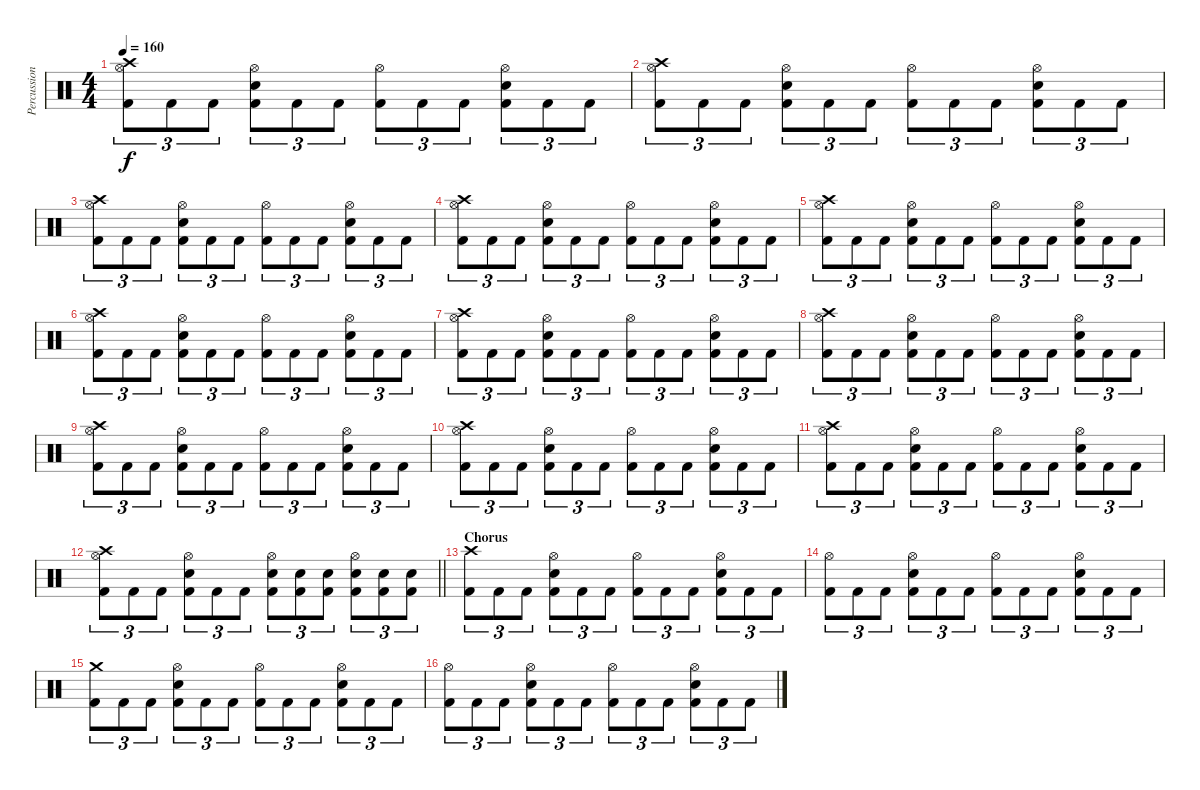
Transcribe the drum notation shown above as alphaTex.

\track ("Percussion" "Percussion") {instrument percussion}
\staff {score}
\articulation defaults
\ts (4 4)
\tempo 160
\clef neutral
\ks c
("Crash high (hit)" "Hi-Hat (open)" "Kick (hit) 2").8{tu (3 2) dy f} "Kick (hit) 2".8{tu (3 2)} "Kick (hit) 2".8{tu (3 2)} ("Hi-Hat (open)" "Snare (hit) 2" "Kick (hit) 2").8{tu (3 2)} "Kick (hit) 2".8{tu (3 2)} "Kick (hit) 2".8{tu (3 2)} ("Hi-Hat (open)" "Kick (hit) 2").8{tu (3 2)} "Kick (hit) 2".8{tu (3 2)} "Kick (hit) 2".8{tu (3 2)} ("Hi-Hat (open)" "Snare (hit) 2" "Kick (hit) 2").8{tu (3 2)} "Kick (hit) 2".8{tu (3 2)} "Kick (hit) 2".8{tu (3 2)} |
("Crash high (hit)" "Hi-Hat (open)" "Kick (hit) 2").8{tu (3 2)} "Kick (hit) 2".8{tu (3 2)} "Kick (hit) 2".8{tu (3 2)} ("Hi-Hat (open)" "Snare (hit) 2" "Kick (hit) 2").8{tu (3 2)} "Kick (hit) 2".8{tu (3 2)} "Kick (hit) 2".8{tu (3 2)} ("Hi-Hat (open)" "Kick (hit) 2").8{tu (3 2)} "Kick (hit) 2".8{tu (3 2)} "Kick (hit) 2".8{tu (3 2)} ("Hi-Hat (open)" "Snare (hit) 2" "Kick (hit) 2").8{tu (3 2)} "Kick (hit) 2".8{tu (3 2)} "Kick (hit) 2".8{tu (3 2)} |
("Crash high (hit)" "Hi-Hat (open)" "Kick (hit) 2").8{tu (3 2)} "Kick (hit) 2".8{tu (3 2)} "Kick (hit) 2".8{tu (3 2)} ("Hi-Hat (open)" "Snare (hit) 2" "Kick (hit) 2").8{tu (3 2)} "Kick (hit) 2".8{tu (3 2)} "Kick (hit) 2".8{tu (3 2)} ("Hi-Hat (open)" "Kick (hit) 2").8{tu (3 2)} "Kick (hit) 2".8{tu (3 2)} "Kick (hit) 2".8{tu (3 2)} ("Hi-Hat (open)" "Snare (hit) 2" "Kick (hit) 2").8{tu (3 2)} "Kick (hit) 2".8{tu (3 2)} "Kick (hit) 2".8{tu (3 2)} |
("Crash high (hit)" "Hi-Hat (open)" "Kick (hit) 2").8{tu (3 2)} "Kick (hit) 2".8{tu (3 2)} "Kick (hit) 2".8{tu (3 2)} ("Hi-Hat (open)" "Snare (hit) 2" "Kick (hit) 2").8{tu (3 2)} "Kick (hit) 2".8{tu (3 2)} "Kick (hit) 2".8{tu (3 2)} ("Hi-Hat (open)" "Kick (hit) 2").8{tu (3 2)} "Kick (hit) 2".8{tu (3 2)} "Kick (hit) 2".8{tu (3 2)} ("Hi-Hat (open)" "Snare (hit) 2" "Kick (hit) 2").8{tu (3 2)} "Kick (hit) 2".8{tu (3 2)} "Kick (hit) 2".8{tu (3 2)} |
("Crash high (hit)" "Hi-Hat (open)" "Kick (hit) 2").8{tu (3 2)} "Kick (hit) 2".8{tu (3 2)} "Kick (hit) 2".8{tu (3 2)} ("Hi-Hat (open)" "Snare (hit) 2" "Kick (hit) 2").8{tu (3 2)} "Kick (hit) 2".8{tu (3 2)} "Kick (hit) 2".8{tu (3 2)} ("Hi-Hat (open)" "Kick (hit) 2").8{tu (3 2)} "Kick (hit) 2".8{tu (3 2)} "Kick (hit) 2".8{tu (3 2)} ("Hi-Hat (open)" "Snare (hit) 2" "Kick (hit) 2").8{tu (3 2)} "Kick (hit) 2".8{tu (3 2)} "Kick (hit) 2".8{tu (3 2)} |
("Crash high (hit)" "Hi-Hat (open)" "Kick (hit) 2").8{tu (3 2)} "Kick (hit) 2".8{tu (3 2)} "Kick (hit) 2".8{tu (3 2)} ("Hi-Hat (open)" "Snare (hit) 2" "Kick (hit) 2").8{tu (3 2)} "Kick (hit) 2".8{tu (3 2)} "Kick (hit) 2".8{tu (3 2)} ("Hi-Hat (open)" "Kick (hit) 2").8{tu (3 2)} "Kick (hit) 2".8{tu (3 2)} "Kick (hit) 2".8{tu (3 2)} ("Hi-Hat (open)" "Snare (hit) 2" "Kick (hit) 2").8{tu (3 2)} "Kick (hit) 2".8{tu (3 2)} "Kick (hit) 2".8{tu (3 2)} |
("Crash high (hit)" "Hi-Hat (open)" "Kick (hit) 2").8{tu (3 2)} "Kick (hit) 2".8{tu (3 2)} "Kick (hit) 2".8{tu (3 2)} ("Hi-Hat (open)" "Snare (hit) 2" "Kick (hit) 2").8{tu (3 2)} "Kick (hit) 2".8{tu (3 2)} "Kick (hit) 2".8{tu (3 2)} ("Hi-Hat (open)" "Kick (hit) 2").8{tu (3 2)} "Kick (hit) 2".8{tu (3 2)} "Kick (hit) 2".8{tu (3 2)} ("Hi-Hat (open)" "Snare (hit) 2" "Kick (hit) 2").8{tu (3 2)} "Kick (hit) 2".8{tu (3 2)} "Kick (hit) 2".8{tu (3 2)} |
("Crash high (hit)" "Hi-Hat (open)" "Kick (hit) 2").8{tu (3 2)} "Kick (hit) 2".8{tu (3 2)} "Kick (hit) 2".8{tu (3 2)} ("Hi-Hat (open)" "Snare (hit) 2" "Kick (hit) 2").8{tu (3 2)} "Kick (hit) 2".8{tu (3 2)} "Kick (hit) 2".8{tu (3 2)} ("Hi-Hat (open)" "Kick (hit) 2").8{tu (3 2)} "Kick (hit) 2".8{tu (3 2)} "Kick (hit) 2".8{tu (3 2)} ("Hi-Hat (open)" "Snare (hit) 2" "Kick (hit) 2").8{tu (3 2)} "Kick (hit) 2".8{tu (3 2)} "Kick (hit) 2".8{tu (3 2)} |
("Crash high (hit)" "Hi-Hat (open)" "Kick (hit) 2").8{tu (3 2)} "Kick (hit) 2".8{tu (3 2)} "Kick (hit) 2".8{tu (3 2)} ("Hi-Hat (open)" "Snare (hit) 2" "Kick (hit) 2").8{tu (3 2)} "Kick (hit) 2".8{tu (3 2)} "Kick (hit) 2".8{tu (3 2)} ("Hi-Hat (open)" "Kick (hit) 2").8{tu (3 2)} "Kick (hit) 2".8{tu (3 2)} "Kick (hit) 2".8{tu (3 2)} ("Hi-Hat (open)" "Snare (hit) 2" "Kick (hit) 2").8{tu (3 2)} "Kick (hit) 2".8{tu (3 2)} "Kick (hit) 2".8{tu (3 2)} |
("Crash high (hit)" "Hi-Hat (open)" "Kick (hit) 2").8{tu (3 2)} "Kick (hit) 2".8{tu (3 2)} "Kick (hit) 2".8{tu (3 2)} ("Hi-Hat (open)" "Snare (hit) 2" "Kick (hit) 2").8{tu (3 2)} "Kick (hit) 2".8{tu (3 2)} "Kick (hit) 2".8{tu (3 2)} ("Hi-Hat (open)" "Kick (hit) 2").8{tu (3 2)} "Kick (hit) 2".8{tu (3 2)} "Kick (hit) 2".8{tu (3 2)} ("Hi-Hat (open)" "Snare (hit) 2" "Kick (hit) 2").8{tu (3 2)} "Kick (hit) 2".8{tu (3 2)} "Kick (hit) 2".8{tu (3 2)} |
("Crash high (hit)" "Hi-Hat (open)" "Kick (hit) 2").8{tu (3 2)} "Kick (hit) 2".8{tu (3 2)} "Kick (hit) 2".8{tu (3 2)} ("Hi-Hat (open)" "Snare (hit) 2" "Kick (hit) 2").8{tu (3 2)} "Kick (hit) 2".8{tu (3 2)} "Kick (hit) 2".8{tu (3 2)} ("Hi-Hat (open)" "Kick (hit) 2").8{tu (3 2)} "Kick (hit) 2".8{tu (3 2)} "Kick (hit) 2".8{tu (3 2)} ("Hi-Hat (open)" "Snare (hit) 2" "Kick (hit) 2").8{tu (3 2)} "Kick (hit) 2".8{tu (3 2)} "Kick (hit) 2".8{tu (3 2)} |
\barLineRight lightlight
("Crash high (hit)" "Hi-Hat (open)" "Kick (hit) 2").8{tu (3 2)} "Kick (hit) 2".8{tu (3 2)} "Kick (hit) 2".8{tu (3 2)} ("Hi-Hat (open)" "Snare (hit) 2" "Kick (hit) 2").8{tu (3 2)} "Kick (hit) 2".8{tu (3 2)} "Kick (hit) 2".8{tu (3 2)} ("Hi-Hat (open)" "Snare (hit) 2" "Kick (hit) 2").8{tu (3 2)} ("Snare (hit) 2" "Kick (hit) 2").8{tu (3 2)} ("Snare (hit) 2" "Kick (hit) 2").8{tu (3 2)} ("Hi-Hat (open)" "Snare (hit) 2" "Kick (hit) 2").8{tu (3 2)} ("Snare (hit) 2" "Kick (hit) 2").8{tu (3 2)} ("Snare (hit) 2" "Kick (hit) 2").8{tu (3 2)} |
\section ("" "Chorus")
("Crash high (hit)" "Kick (hit) 2").8{tu (3 2)} "Kick (hit) 2".8{tu (3 2)} "Kick (hit) 2".8{tu (3 2)} ("Hi-Hat (open)" "Snare (hit) 2" "Kick (hit) 2").8{tu (3 2)} "Kick (hit) 2".8{tu (3 2)} "Kick (hit) 2".8{tu (3 2)} ("Hi-Hat (open)" "Kick (hit) 2").8{tu (3 2)} "Kick (hit) 2".8{tu (3 2)} "Kick (hit) 2".8{tu (3 2)} ("Hi-Hat (open)" "Snare (hit) 2" "Kick (hit) 2").8{tu (3 2)} "Kick (hit) 2".8{tu (3 2)} "Kick (hit) 2".8{tu (3 2)} |
("Hi-Hat (open)" "Kick (hit) 2").8{tu (3 2)} "Kick (hit) 2".8{tu (3 2)} "Kick (hit) 2".8{tu (3 2)} ("Hi-Hat (open)" "Snare (hit) 2" "Kick (hit) 2").8{tu (3 2)} "Kick (hit) 2".8{tu (3 2)} "Kick (hit) 2".8{tu (3 2)} ("Hi-Hat (open)" "Kick (hit) 2").8{tu (3 2)} "Kick (hit) 2".8{tu (3 2)} "Kick (hit) 2".8{tu (3 2)} ("Hi-Hat (open)" "Snare (hit) 2" "Kick (hit) 2").8{tu (3 2)} "Kick (hit) 2".8{tu (3 2)} "Kick (hit) 2".8{tu (3 2)} |
("Crash medium (hit)" "Kick (hit) 2").8{tu (3 2)} "Kick (hit) 2".8{tu (3 2)} "Kick (hit) 2".8{tu (3 2)} ("Hi-Hat (open)" "Snare (hit) 2" "Kick (hit) 2").8{tu (3 2)} "Kick (hit) 2".8{tu (3 2)} "Kick (hit) 2".8{tu (3 2)} ("Hi-Hat (open)" "Kick (hit) 2").8{tu (3 2)} "Kick (hit) 2".8{tu (3 2)} "Kick (hit) 2".8{tu (3 2)} ("Hi-Hat (open)" "Snare (hit) 2" "Kick (hit) 2").8{tu (3 2)} "Kick (hit) 2".8{tu (3 2)} "Kick (hit) 2".8{tu (3 2)} |
("Hi-Hat (open)" "Kick (hit) 2").8{tu (3 2)} "Kick (hit) 2".8{tu (3 2)} "Kick (hit) 2".8{tu (3 2)} ("Hi-Hat (open)" "Snare (hit) 2" "Kick (hit) 2").8{tu (3 2)} "Kick (hit) 2".8{tu (3 2)} "Kick (hit) 2".8{tu (3 2)} ("Hi-Hat (open)" "Kick (hit) 2").8{tu (3 2)} "Kick (hit) 2".8{tu (3 2)} "Kick (hit) 2".8{tu (3 2)} ("Hi-Hat (open)" "Snare (hit) 2" "Kick (hit) 2").8{tu (3 2)} "Kick (hit) 2".8{tu (3 2)} "Kick (hit) 2".8{tu (3 2)}
